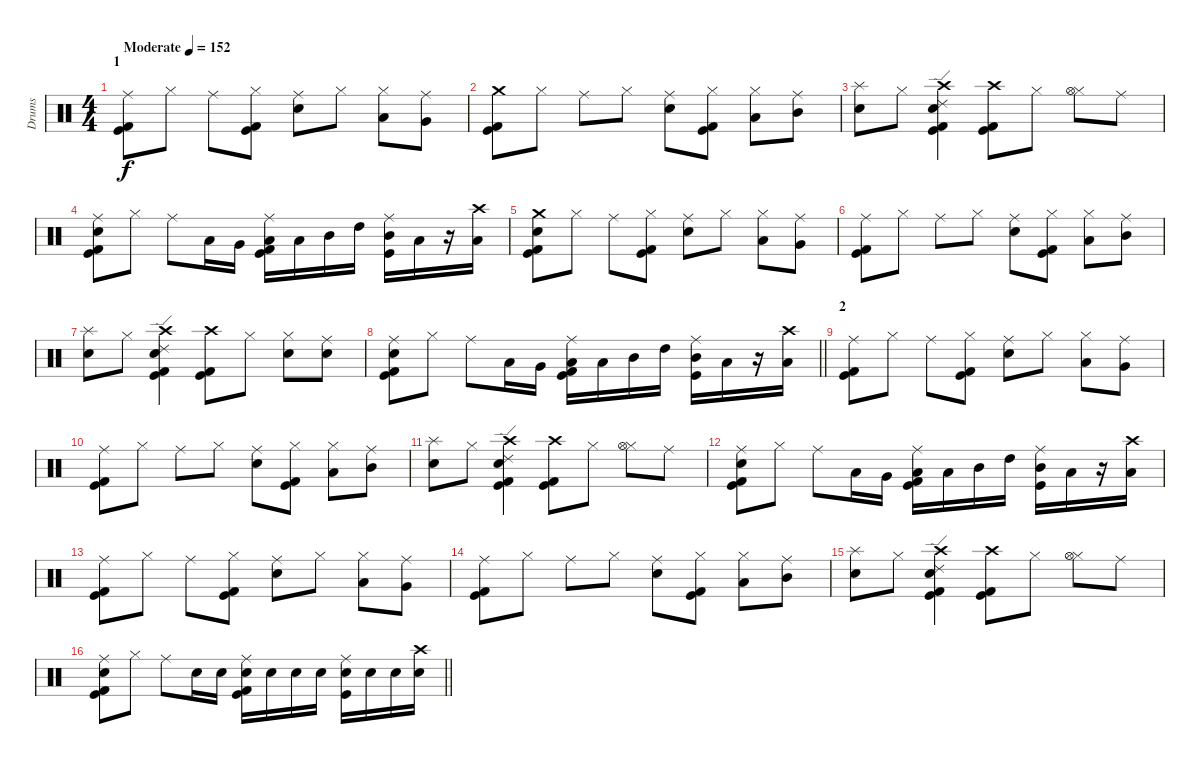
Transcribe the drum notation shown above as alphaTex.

\track ("Drums" "Drums") {instrument percussion}
\staff {score}
\articulation defaults
\ts (4 4)
\section ("" "1")
\tempo (152 "Moderate")
\clef neutral
\ks c
("Ride (middle)" "Kick (hit) 2" "Kick (hit)").8{dy f} "Hi-Hat (closed)".8 "Ride (middle)".8 ("Hi-Hat (closed)" "Kick (hit) 2" "Kick (hit)").8 ("Ride (middle)" "Electric Snare (hit)").8 "Hi-Hat (closed)".8 ("Hi-Hat (closed)" "Low Floor Tom (hit)").8 ("Ride (middle)" "Very Low Tom (hit)").8 |
("Crash medium (hit)" "Kick (hit) 2" "Kick (hit)").8 "Hi-Hat (closed)".8 "Ride (middle)".8 "Hi-Hat (closed)".8 ("Ride (middle)" "Electric Snare (hit)").8 ("Hi-Hat (closed)" "Kick (hit) 2" "Kick (hit)").8 ("Hi-Hat (closed)" "Low Tom (hit)").8 ("Ride (middle)" "Mid Tom (hit)").8 |
("Splash (hit)" "Electric Snare (hit)").8 "Hi-Hat (closed)".8 ("Ride (edge) 2" "Crash high (hit)" "Electric Snare (hit)" "Kick (hit) 2" "Kick (hit)").4 ("Crash high (hit)" "Kick (hit) 2" "Kick (hit)").8 "Hi-Hat (closed)".8 ("Hi-Hat (closed)" "Hi-Hat (open)").8 "Ride (middle)".8 |
("Ride (middle)" "Electric Snare (hit)" "Kick (hit) 2" "Kick (hit)").8 "Hi-Hat (closed)".8 "Ride (middle)".8 "Low Floor Tom (hit)".16 "Very Low Tom (hit)".16 ("Ride (middle)" "Low Tom (hit)" "Kick (hit) 2" "Kick (hit)").16 "Low Tom (hit)".16 "Mid Tom (hit)".16 "High Tom (hit)".16 ("Ride (middle)" "Mid Tom (hit)" "Kick (hit)").16 "Low Tom (hit)".16 r.16 ("Crash high (hit)" "Low Floor Tom (hit)").16 |
("Crash medium (hit)" "Electric Snare (hit)" "Kick (hit) 2" "Kick (hit)").8 "Hi-Hat (closed)".8 "Ride (middle)".8 ("Hi-Hat (closed)" "Kick (hit) 2" "Kick (hit)").8 ("Ride (middle)" "Electric Snare (hit)").8 "Hi-Hat (closed)".8 ("Hi-Hat (closed)" "Low Floor Tom (hit)").8 ("Ride (middle)" "Very Low Tom (hit)").8 |
("Ride (middle)" "Kick (hit) 2" "Kick (hit)").8 "Hi-Hat (closed)".8 "Ride (middle)".8 "Hi-Hat (closed)".8 ("Ride (middle)" "Electric Snare (hit)").8 ("Hi-Hat (closed)" "Kick (hit) 2" "Kick (hit)").8 ("Hi-Hat (closed)" "Low Tom (hit)").8 ("Ride (middle)" "Mid Tom (hit)").8 |
("Splash (hit)" "Electric Snare (hit)").8 "Hi-Hat (closed)".8 ("Ride (edge) 2" "Crash high (hit)" "Electric Snare (hit)" "Kick (hit) 2" "Kick (hit)").4 ("Crash high (hit)" "Kick (hit) 2" "Kick (hit)").8 "Hi-Hat (closed)".8 ("Hi-Hat (closed)" "Electric Snare (hit)").8 ("Ride (middle)" "Electric Snare (hit)").8 |
\barLineRight lightlight
("Ride (middle)" "Electric Snare (hit)" "Kick (hit) 2" "Kick (hit)").8 "Hi-Hat (closed)".8 "Ride (middle)".8 "Low Floor Tom (hit)".16 "Very Low Tom (hit)".16 ("Ride (middle)" "Low Tom (hit)" "Kick (hit) 2" "Kick (hit)").16 "Low Tom (hit)".16 "Mid Tom (hit)".16 "High Tom (hit)".16 ("Ride (middle)" "Mid Tom (hit)" "Kick (hit)").16 "Low Tom (hit)".16 r.16 ("Crash high (hit)" "Low Floor Tom (hit)").16 |
\section ("" "2")
("Ride (middle)" "Kick (hit) 2" "Kick (hit)").8 "Hi-Hat (closed)".8 "Ride (middle)".8 ("Hi-Hat (closed)" "Kick (hit) 2" "Kick (hit)").8 ("Ride (middle)" "Electric Snare (hit)").8 "Hi-Hat (closed)".8 ("Hi-Hat (closed)" "Low Floor Tom (hit)").8 ("Ride (middle)" "Very Low Tom (hit)").8 |
("Ride (middle)" "Kick (hit) 2" "Kick (hit)").8 "Hi-Hat (closed)".8 "Ride (middle)".8 "Hi-Hat (closed)".8 ("Ride (middle)" "Electric Snare (hit)").8 ("Hi-Hat (closed)" "Kick (hit) 2" "Kick (hit)").8 ("Hi-Hat (closed)" "Low Tom (hit)").8 ("Ride (middle)" "Mid Tom (hit)").8 |
("Splash (hit)" "Electric Snare (hit)").8 "Hi-Hat (closed)".8 ("Ride (edge) 2" "Crash high (hit)" "Electric Snare (hit)" "Kick (hit) 2" "Kick (hit)").4 ("Crash high (hit)" "Kick (hit) 2" "Kick (hit)").8 "Hi-Hat (closed)".8 ("Hi-Hat (closed)" "Hi-Hat (open)").8 "Ride (middle)".8 |
("Ride (middle)" "Electric Snare (hit)" "Kick (hit) 2" "Kick (hit)").8 "Hi-Hat (closed)".8 "Ride (middle)".8 "Low Floor Tom (hit)".16 "Very Low Tom (hit)".16 ("Ride (middle)" "Low Tom (hit)" "Kick (hit) 2" "Kick (hit)").16 "Low Tom (hit)".16 "Mid Tom (hit)".16 "High Tom (hit)".16 ("Ride (middle)" "Mid Tom (hit)" "Kick (hit)").16 "Low Tom (hit)".16 r.16 ("Crash high (hit)" "Low Floor Tom (hit)").16 |
("Ride (middle)" "Kick (hit) 2" "Kick (hit)").8 "Hi-Hat (closed)".8 "Ride (middle)".8 ("Hi-Hat (closed)" "Kick (hit) 2" "Kick (hit)").8 ("Ride (middle)" "Electric Snare (hit)").8 "Hi-Hat (closed)".8 ("Hi-Hat (closed)" "Low Floor Tom (hit)").8 ("Ride (middle)" "Very Low Tom (hit)").8 |
("Ride (middle)" "Kick (hit) 2" "Kick (hit)").8 "Hi-Hat (closed)".8 "Ride (middle)".8 "Hi-Hat (closed)".8 ("Ride (middle)" "Electric Snare (hit)").8 ("Hi-Hat (closed)" "Kick (hit) 2" "Kick (hit)").8 ("Hi-Hat (closed)" "Low Tom (hit)").8 ("Ride (middle)" "Mid Tom (hit)").8 |
("Splash (hit)" "Electric Snare (hit)").8 "Hi-Hat (closed)".8 ("Ride (edge) 2" "Crash high (hit)" "Electric Snare (hit)" "Kick (hit) 2" "Kick (hit)").4 ("Crash high (hit)" "Kick (hit) 2" "Kick (hit)").8 "Hi-Hat (closed)".8 ("Hi-Hat (closed)" "Hi-Hat (open)").8 "Ride (middle)".8 |
\barLineRight lightlight
("Ride (middle)" "Electric Snare (hit)" "Kick (hit) 2" "Kick (hit)").8 "Hi-Hat (closed)".8 "Ride (middle)".8 "Electric Snare (hit)".16 "Electric Snare (hit)".16 ("Ride (middle)" "Electric Snare (hit)" "Kick (hit) 2" "Kick (hit)").16 "Electric Snare (hit)".16 "Electric Snare (hit)".16 "Electric Snare (hit)".16 ("Ride (middle)" "Electric Snare (hit)" "Kick (hit)").16 "Electric Snare (hit)".16 "Electric Snare (hit)".16 ("Crash high (hit)" "Electric Snare (hit)").16
